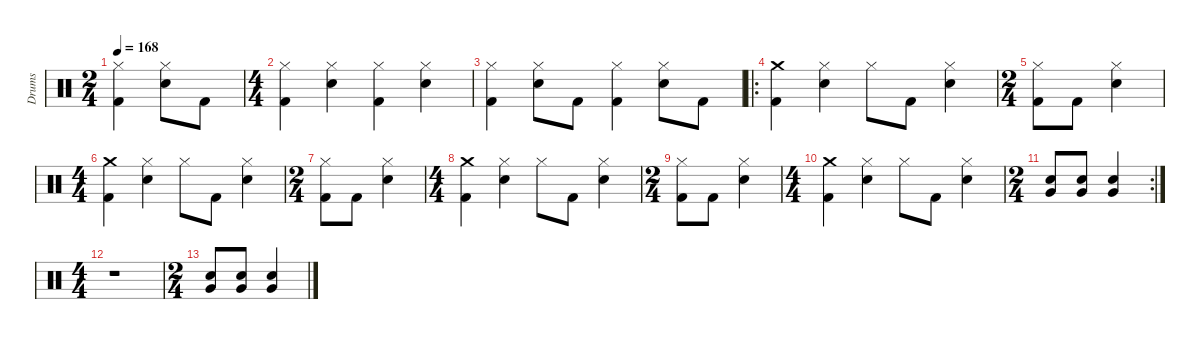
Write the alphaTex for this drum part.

\defaultSystemsLayout 4
\hideDynamics
\bracketExtendMode nobrackets
\firstSystemTrackNameMode fullname
\otherSystemsTrackNameOrientation horizontal
\track ("Drums" "drm.") {instrument percussion}
\staff {score}
\articulation defaults
\ts (2 4)
\beaming (8 2 2)
\tempo 168
\clef neutral
\ks c
("Hi-Hat (closed)" "Kick (hit) 2").4{dy fff beam Down} ("Snare (hit) 2" "Hi-Hat (closed)").8{beam Down} "Kick (hit) 2".8{beam Down} |
\ts (4 4)
\beaming (8 2 2 2 2)
("Kick (hit) 2" "Hi-Hat (closed)").4{beam Down} ("Snare (hit) 2" "Hi-Hat (closed)").4{beam Down} ("Kick (hit) 2" "Hi-Hat (closed)").4{beam Down} ("Snare (hit) 2" "Hi-Hat (closed)").4{beam Down} |
("Hi-Hat (closed)" "Kick (hit) 2").4{beam Down} ("Snare (hit) 2" "Hi-Hat (closed)").8{beam Down} "Kick (hit) 2".8{beam Down} ("Kick (hit) 2" "Hi-Hat (closed)").4{beam Down} ("Hi-Hat (closed)" "Snare (hit) 2").8{beam Down} "Kick (hit) 2".8{beam Down} |
\ro
("Kick (hit) 2" "Crash medium (hit)").4{beam Down} ("Hi-Hat (closed)" "Snare (hit) 2").4{beam Down} "Hi-Hat (closed)".8{beam Down} "Kick (hit) 2".8{beam Down} ("Snare (hit) 2" "Hi-Hat (closed)").4{beam Down} |
\ts (2 4)
\beaming (8 2 2)
("Kick (hit) 2" "Hi-Hat (closed)").8{beam Down} "Kick (hit) 2".8{beam Down} ("Snare (hit) 2" "Hi-Hat (closed)").4{beam Down} |
\ts (4 4)
\beaming (8 2 2 2 2)
("Kick (hit) 2" "Crash medium (hit)").4{beam Down} ("Hi-Hat (closed)" "Snare (hit) 2").4{beam Down} "Hi-Hat (closed)".8{beam Down} "Kick (hit) 2".8{beam Down} ("Snare (hit) 2" "Hi-Hat (closed)").4{beam Down} |
\ts (2 4)
\beaming (8 2 2)
("Kick (hit) 2" "Hi-Hat (closed)").8{beam Down} "Kick (hit) 2".8{beam Down} ("Snare (hit) 2" "Hi-Hat (closed)").4{beam Down} |
\ts (4 4)
\beaming (8 2 2 2 2)
("Kick (hit) 2" "Crash medium (hit)").4{beam Down} ("Hi-Hat (closed)" "Snare (hit) 2").4{beam Down} "Hi-Hat (closed)".8{beam Down} "Kick (hit) 2".8{beam Down} ("Snare (hit) 2" "Hi-Hat (closed)").4{beam Down} |
\ts (2 4)
\beaming (8 2 2)
("Kick (hit) 2" "Hi-Hat (closed)").8{beam Down} "Kick (hit) 2".8{beam Down} ("Snare (hit) 2" "Hi-Hat (closed)").4{beam Down} |
\ts (4 4)
\beaming (8 2 2 2 2)
("Kick (hit) 2" "Crash medium (hit)").4{beam Down} ("Hi-Hat (closed)" "Snare (hit) 2").4{beam Down} "Hi-Hat (closed)".8{beam Down} "Kick (hit) 2".8{beam Down} ("Snare (hit) 2" "Hi-Hat (closed)").4{beam Down} |
\rc 2
\ts (2 4)
\beaming (8 2 2)
("Very Low Tom (hit)" "Snare (hit) 2").8{beam Up} ("Very Low Tom (hit)" "Snare (hit) 2").8{beam Up} ("Snare (hit) 2" "Very Low Tom (hit)").4{beam Up} |
\ts (4 4)
\beaming (8 2 2 2 2)
r.1{beam Down} |
\ts (2 4)
\beaming (8 2 2)
("Very Low Tom (hit)" "Snare (hit) 2").8{beam Up} ("Very Low Tom (hit)" "Snare (hit) 2").8{beam Up} ("Snare (hit) 2" "Very Low Tom (hit)").4{beam Up}
